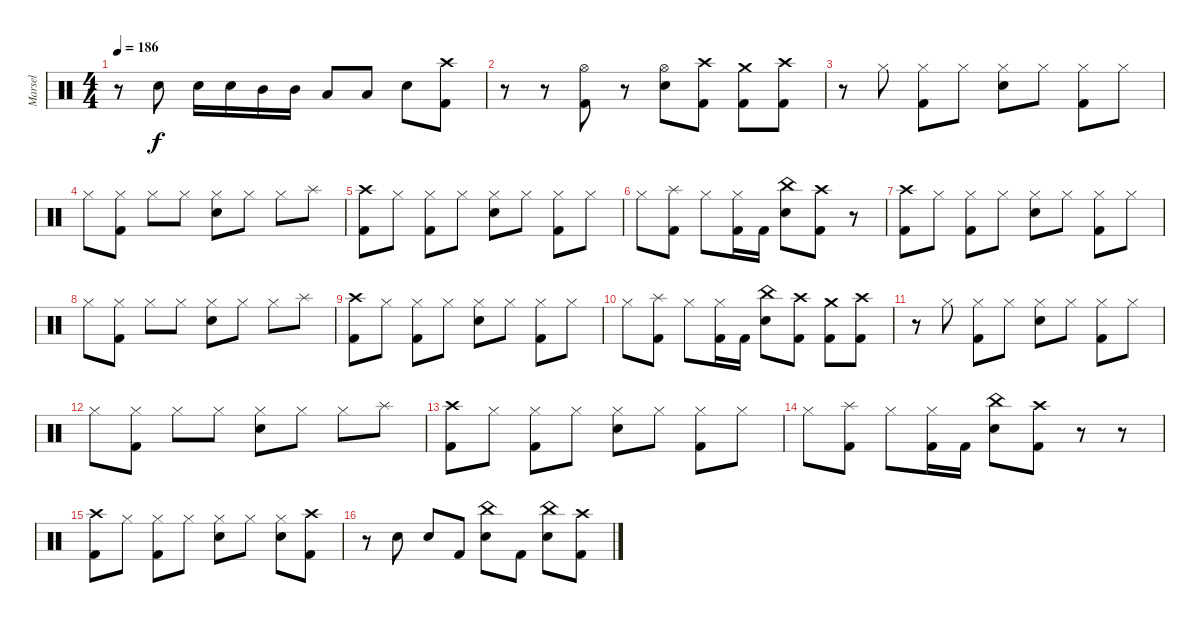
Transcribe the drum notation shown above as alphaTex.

\track ("Marsel" "Marsel") {mute instrument percussion}
\staff {score}
\articulation defaults
\ts (4 4)
\tempo 186
\clef neutral
\ks c
r.8{dy f} "Snare (hit) 2".8 "Snare (hit) 2".16 "Snare (hit) 2".16 "Mid Tom (hit)".16 "Mid Tom (hit)".16 "Low Tom (hit)".8 "Low Tom (hit)".8 "Snare (hit) 2".8 ("Crash high (hit)" "Kick (hit) 2").8 |
r.8 r.8 ("Hi-Hat (open)" "Kick (hit) 2").8 r.8 ("Hi-Hat (open)" "Snare (hit) 2").8 ("Crash high (hit)" "Kick (hit) 2").8 ("Crash medium (hit)" "Kick (hit) 2").8 ("Crash high (hit)" "Kick (hit) 2").8 |
r.8 "Hi-Hat (closed)".8 ("Hi-Hat (closed)" "Kick (hit) 2").8 "Hi-Hat (closed)".8 ("Hi-Hat (closed)" "Snare (hit) 2").8 "Hi-Hat (closed)".8 ("Hi-Hat (closed)" "Kick (hit) 2").8 "Hi-Hat (closed)".8 |
"Hi-Hat (closed)".8 ("Hi-Hat (closed)" "Kick (hit) 2").8 "Hi-Hat (closed)".8 "Hi-Hat (closed)".8 ("Hi-Hat (closed)" "Snare (hit) 2").8 "Hi-Hat (closed)".8 "Hi-Hat (closed)".8 "Splash (hit)".8 |
("Crash high (hit)" "Kick (hit) 2").8 "Hi-Hat (closed)".8 ("Hi-Hat (closed)" "Kick (hit) 2").8 "Hi-Hat (closed)".8 ("Hi-Hat (closed)" "Snare (hit) 2").8 "Hi-Hat (closed)".8 ("Hi-Hat (closed)" "Kick (hit) 2").8 "Hi-Hat (closed)".8 |
"Hi-Hat (closed)".8 ("Splash (hit)" "Kick (hit) 2").8 "Hi-Hat (closed)".8 ("Hi-Hat (closed)" "Kick (hit) 2").16 "Kick (hit) 2".16 ("China (hit)" "Snare (hit) 2").8 ("Crash high (hit)" "Kick (hit) 2").8 r.8 |
("Crash high (hit)" "Kick (hit) 2").8 "Hi-Hat (closed)".8 ("Hi-Hat (closed)" "Kick (hit) 2").8 "Hi-Hat (closed)".8 ("Hi-Hat (closed)" "Snare (hit) 2").8 "Hi-Hat (closed)".8 ("Hi-Hat (closed)" "Kick (hit) 2").8 "Hi-Hat (closed)".8 |
"Hi-Hat (closed)".8 ("Hi-Hat (closed)" "Kick (hit) 2").8 "Hi-Hat (closed)".8 "Hi-Hat (closed)".8 ("Hi-Hat (closed)" "Snare (hit) 2").8 "Hi-Hat (closed)".8 "Hi-Hat (closed)".8 "Splash (hit)".8 |
("Crash high (hit)" "Kick (hit) 2").8 "Hi-Hat (closed)".8 ("Hi-Hat (closed)" "Kick (hit) 2").8 "Hi-Hat (closed)".8 ("Hi-Hat (closed)" "Snare (hit) 2").8 "Hi-Hat (closed)".8 ("Hi-Hat (closed)" "Kick (hit) 2").8 "Hi-Hat (closed)".8 |
"Hi-Hat (closed)".8 ("Splash (hit)" "Kick (hit) 2").8 "Hi-Hat (closed)".8 ("Hi-Hat (closed)" "Kick (hit) 2").16 "Kick (hit) 2".16 ("China (hit)" "Snare (hit) 2").8 ("Crash high (hit)" "Kick (hit) 2").8 ("Crash medium (hit)" "Kick (hit) 2").8 ("Crash high (hit)" "Kick (hit) 2").8 |
r.8 "Hi-Hat (closed)".8 ("Hi-Hat (closed)" "Kick (hit) 2").8 "Hi-Hat (closed)".8 ("Hi-Hat (closed)" "Snare (hit) 2").8 "Hi-Hat (closed)".8 ("Hi-Hat (closed)" "Kick (hit) 2").8 "Hi-Hat (closed)".8 |
"Hi-Hat (closed)".8 ("Hi-Hat (closed)" "Kick (hit) 2").8 "Hi-Hat (closed)".8 "Hi-Hat (closed)".8 ("Hi-Hat (closed)" "Snare (hit) 2").8 "Hi-Hat (closed)".8 "Hi-Hat (closed)".8 "Splash (hit)".8 |
("Crash high (hit)" "Kick (hit) 2").8 "Hi-Hat (closed)".8 ("Hi-Hat (closed)" "Kick (hit) 2").8 "Hi-Hat (closed)".8 ("Hi-Hat (closed)" "Snare (hit) 2").8 "Hi-Hat (closed)".8 ("Hi-Hat (closed)" "Kick (hit) 2").8 "Hi-Hat (closed)".8 |
"Hi-Hat (closed)".8 ("Splash (hit)" "Kick (hit) 2").8 "Hi-Hat (closed)".8 ("Hi-Hat (closed)" "Kick (hit) 2").16 "Kick (hit) 2".16 ("China (hit)" "Snare (hit) 2").8 ("Crash high (hit)" "Kick (hit) 2").8 r.8 r.8 |
("Crash high (hit)" "Kick (hit) 2").8 "Hi-Hat (closed)".8 ("Hi-Hat (closed)" "Kick (hit) 2").8 "Hi-Hat (closed)".8 ("Hi-Hat (closed)" "Snare (hit) 2").8 "Hi-Hat (closed)".8 ("Hi-Hat (closed)" "Snare (hit) 2").8 ("Crash high (hit)" "Kick (hit) 2").8 |
r.8 "Snare (hit) 2".8 "Snare (hit) 2".8 "Kick (hit) 2".8 ("China (hit)" "Snare (hit) 2").8 "Kick (hit) 2".8 ("China (hit)" "Snare (hit) 2").8 ("Crash high (hit)" "Kick (hit) 2").8
